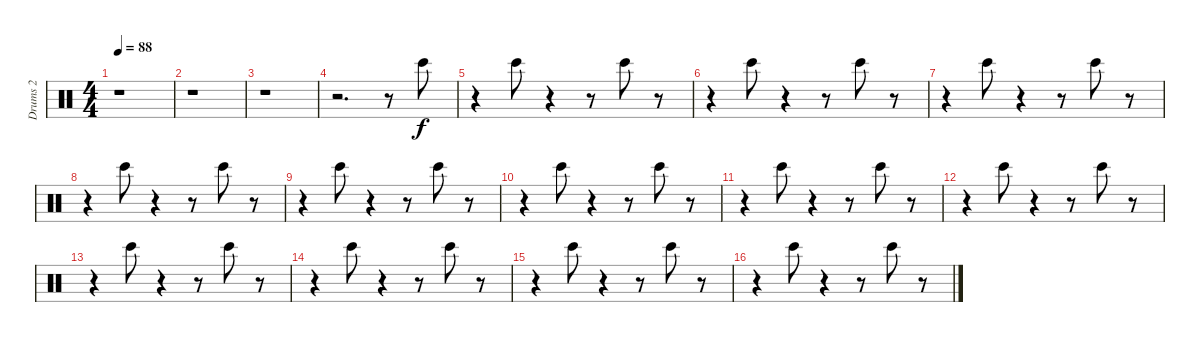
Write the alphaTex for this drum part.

\track ("Drums 2" "Drums 2") {instrument percussion}
\staff {score}
\articulation defaults
\ts (4 4)
\tempo 88
\clef neutral
\ks c
r.1{dy f} |
r.1 |
r.1 |
r.2{d} r.8 "Bongo High (hit)".8{volume 7} |
r.4 "Bongo High (hit)".8{volume 7} r.4 r.8 "Bongo High (hit)".8{volume 7} r.8 |
r.4 "Bongo High (hit)".8{volume 7} r.4 r.8 "Bongo High (hit)".8{volume 7} r.8 |
r.4 "Bongo High (hit)".8{volume 7} r.4 r.8 "Bongo High (hit)".8{volume 7} r.8 |
r.4 "Bongo High (hit)".8{volume 7} r.4 r.8 "Bongo High (hit)".8{volume 7} r.8 |
r.4 "Bongo High (hit)".8{volume 7} r.4 r.8 "Bongo High (hit)".8{volume 7} r.8 |
r.4 "Bongo High (hit)".8{volume 7} r.4 r.8 "Bongo High (hit)".8{volume 7} r.8 |
r.4 "Bongo High (hit)".8{volume 7} r.4 r.8 "Bongo High (hit)".8{volume 7} r.8 |
r.4 "Bongo High (hit)".8{volume 7} r.4 r.8 "Bongo High (hit)".8{volume 7} r.8 |
r.4 "Bongo High (hit)".8{volume 7} r.4 r.8 "Bongo High (hit)".8{volume 7} r.8 |
r.4 "Bongo High (hit)".8{volume 7} r.4 r.8 "Bongo High (hit)".8{volume 7} r.8 |
r.4 "Bongo High (hit)".8{volume 7} r.4 r.8 "Bongo High (hit)".8{volume 7} r.8 |
r.4 "Bongo High (hit)".8{volume 7} r.4 r.8 "Bongo High (hit)".8{volume 7} r.8
